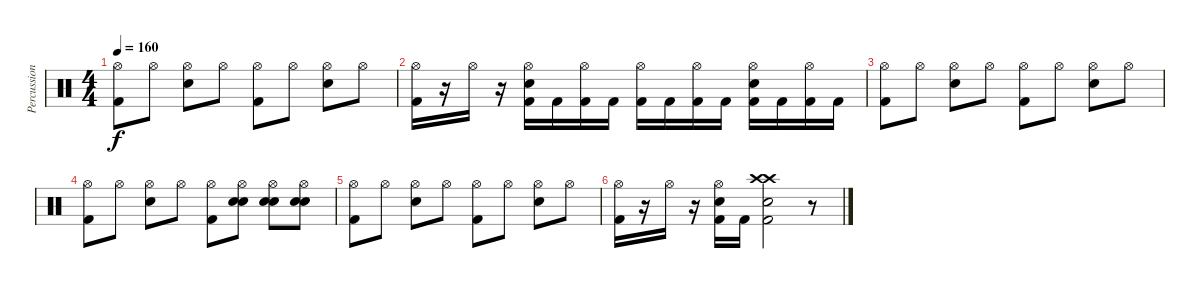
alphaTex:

\track ("Percussion" "Percussion") {instrument percussion}
\staff {score}
\articulation defaults
\ts (4 4)
\tempo 160
\clef neutral
\ks c
("Hi-Hat (open)" "Kick (hit) 2").8{dy f} "Hi-Hat (open)".8 ("Hi-Hat (open)" "Snare (hit) 2").8 "Hi-Hat (open)".8 ("Hi-Hat (open)" "Kick (hit) 2").8 "Hi-Hat (open)".8 ("Hi-Hat (open)" "Snare (hit) 2").8 "Hi-Hat (open)".8 |
("Hi-Hat (open)" "Kick (hit) 2").16 r.16 "Hi-Hat (open)".16 r.16 ("Hi-Hat (open)" "Snare (hit) 2" "Kick (hit) 2").16 "Kick (hit) 2".16 ("Hi-Hat (open)" "Kick (hit) 2").16 "Kick (hit) 2".16 ("Hi-Hat (open)" "Kick (hit) 2").16 "Kick (hit) 2".16 ("Hi-Hat (open)" "Kick (hit) 2").16 "Kick (hit) 2".16 ("Hi-Hat (open)" "Snare (hit) 2" "Kick (hit) 2").16 "Kick (hit) 2".16 ("Hi-Hat (open)" "Kick (hit) 2").16 "Kick (hit) 2".16 |
("Hi-Hat (open)" "Kick (hit) 2").8 "Hi-Hat (open)".8 ("Hi-Hat (open)" "Snare (hit) 2").8 "Hi-Hat (open)".8 ("Hi-Hat (open)" "Kick (hit) 2").8 "Hi-Hat (open)".8 ("Hi-Hat (open)" "Snare (hit) 2").8 "Hi-Hat (open)".8 |
("Hi-Hat (open)" "Kick (hit) 2").8 "Hi-Hat (open)".8 ("Hi-Hat (open)" "Snare (hit) 2").8 "Hi-Hat (open)".8 ("Hi-Hat (open)" "Kick (hit) 2").8 ("Hi-Hat (open)" "Snare (hit) 2" "Snare (hit) 2").8 ("Hi-Hat (open)" "Snare (hit) 2" "Snare (hit) 2").8 ("Hi-Hat (open)" "Snare (hit) 2" "Snare (hit) 2").8 |
("Hi-Hat (open)" "Kick (hit) 2").8 "Hi-Hat (open)".8 ("Hi-Hat (open)" "Snare (hit) 2").8 "Hi-Hat (open)".8 ("Hi-Hat (open)" "Kick (hit) 2").8 "Hi-Hat (open)".8 ("Hi-Hat (open)" "Snare (hit) 2").8 "Hi-Hat (open)".8 |
("Hi-Hat (open)" "Kick (hit) 2").16 r.16 "Hi-Hat (open)".16 r.16 ("Hi-Hat (open)" "Snare (hit) 2" "Kick (hit) 2").16 "Kick (hit) 2".16 ("Crash high (hit)" "Crash high (hit)" "Snare (hit) 2" "Kick (hit) 2").2 r.8
